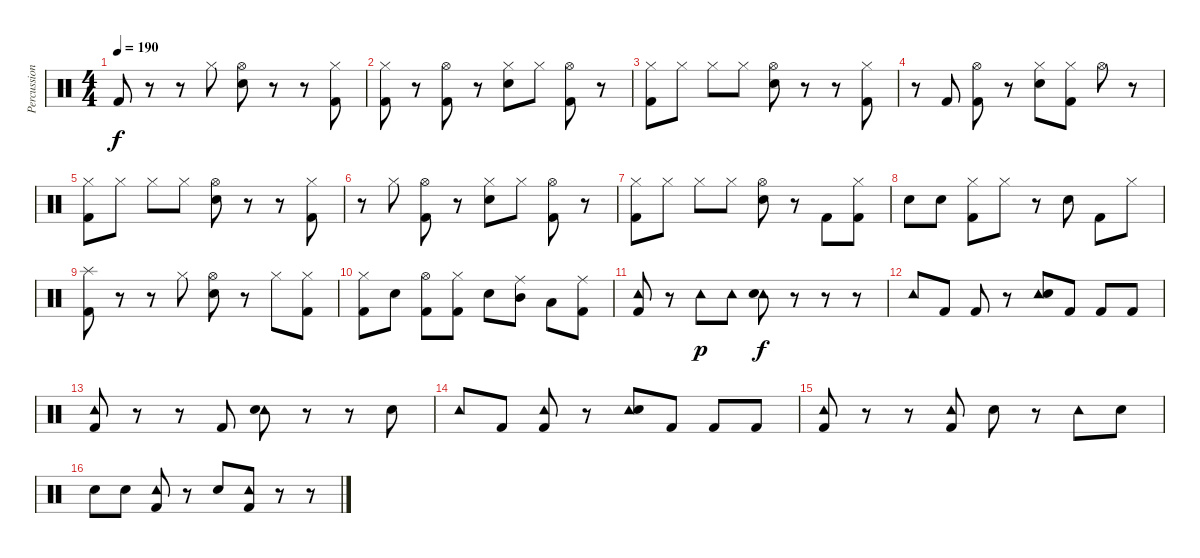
\track ("Percussion" "Percussion") {instrument percussion}
\staff {score}
\articulation defaults
\ts (4 4)
\tempo 190
\clef neutral
\ks c "Kick (hit) 2".8{dy f}
r.8 r.8 "Hi-Hat (closed)".8 ("Hi-Hat (open)" "Electric Snare (hit)").8 r.8 r.8 ("Hi-Hat (closed)" "Kick (hit) 2").8 |
("Hi-Hat (closed)" "Kick (hit) 2").8 r.8 ("Hi-Hat (open)" "Kick (hit) 2").8 r.8 ("Hi-Hat (closed)" "Electric Snare (hit)").8 "Hi-Hat (closed)".8 ("Hi-Hat (open)" "Kick (hit) 2").8 r.8 |
("Hi-Hat (closed)" "Kick (hit) 2").8 "Hi-Hat (closed)".8 "Hi-Hat (closed)".8 "Hi-Hat (closed)".8 ("Hi-Hat (open)" "Electric Snare (hit)").8 r.8 r.8 ("Hi-Hat (closed)" "Kick (hit) 2").8 |
r.8 "Kick (hit) 2".8 ("Hi-Hat (open)" "Kick (hit) 2").8 r.8 ("Hi-Hat (closed)" "Electric Snare (hit)").8 ("Hi-Hat (closed)" "Kick (hit) 2").8 "Hi-Hat (open)".8 r.8 |
("Hi-Hat (closed)" "Kick (hit) 2").8 "Hi-Hat (closed)".8 "Hi-Hat (closed)".8 "Hi-Hat (closed)".8 ("Hi-Hat (open)" "Electric Snare (hit)").8 r.8 r.8 ("Hi-Hat (closed)" "Kick (hit) 2").8 |
r.8 "Hi-Hat (closed)".8 ("Hi-Hat (open)" "Kick (hit) 2").8 r.8 ("Hi-Hat (closed)" "Electric Snare (hit)").8 "Hi-Hat (closed)".8 ("Hi-Hat (open)" "Kick (hit) 2").8 r.8 |
("Hi-Hat (closed)" "Kick (hit) 2").8 "Hi-Hat (closed)".8 "Hi-Hat (closed)".8 "Hi-Hat (closed)".8 ("Hi-Hat (open)" "Electric Snare (hit)").8 r.8 "Kick (hit) 2".8 ("Hi-Hat (closed)" "Kick (hit) 2").8 |
"Electric Snare (hit)".8 "Electric Snare (hit)".8 ("Hi-Hat (closed)" "Kick (hit) 2").8 "Hi-Hat (closed)".8 r.8 "Electric Snare (hit)".8 "Kick (hit) 2".8 "Hi-Hat (closed)".8 |
("Splash (hit)" "Kick (hit) 2").8 r.8 r.8 "Hi-Hat (closed)".8 ("Hi-Hat (open)" "Electric Snare (hit)").8 r.8 "Hi-Hat (closed)".8 ("Hi-Hat (closed)" "Kick (hit) 2").8 |
("Hi-Hat (closed)" "Kick (hit) 2").8 "Electric Snare (hit)".8 ("Hi-Hat (open)" "Kick (hit) 2").8 ("Hi-Hat (closed)" "Kick (hit) 2").8 "Electric Snare (hit)".8 ("Ride (middle)" "Mid Tom (hit)").8 "Low Tom (hit)".8 ("Ride (middle)" "Kick (hit) 2").8 |
("Tambourine (hit)" "Kick (hit) 2").8 r.8 "Tambourine (hit)".8{dy p} "Tambourine (hit)".8 ("Tambourine (hit)" "Electric Snare (hit)").8{dy f} r.8 r.8 r.8 |
"Tambourine (hit)".8 "Kick (hit) 2".8 "Kick (hit) 2".8 r.8 ("Tambourine (hit)" "Electric Snare (hit)").8 "Kick (hit) 2".8 "Kick (hit) 2".8 "Kick (hit) 2".8 |
("Tambourine (hit)" "Kick (hit) 2").8 r.8 r.8 "Kick (hit) 2".8 ("Tambourine (hit)" "Electric Snare (hit)").8 r.8 r.8 "Electric Snare (hit)".8 |
"Tambourine (hit)".8 "Kick (hit) 2".8 ("Tambourine (hit)" "Kick (hit) 2").8 r.8 ("Tambourine (hit)" "Electric Snare (hit)").8 "Kick (hit) 2".8 "Kick (hit) 2".8 "Kick (hit) 2".8 |
("Tambourine (hit)" "Kick (hit) 2").8 r.8 r.8 ("Tambourine (hit)" "Kick (hit) 2").8 "Electric Snare (hit)".8 r.8 "Tambourine (hit)".8 "Electric Snare (hit)".8 |
"Electric Snare (hit)".8 "Electric Snare (hit)".8 ("Tambourine (hit)" "Kick (hit) 2").8 r.8 "Electric Snare (hit)".8 ("Tambourine (hit)" "Kick (hit) 2").8 r.8 r.8
